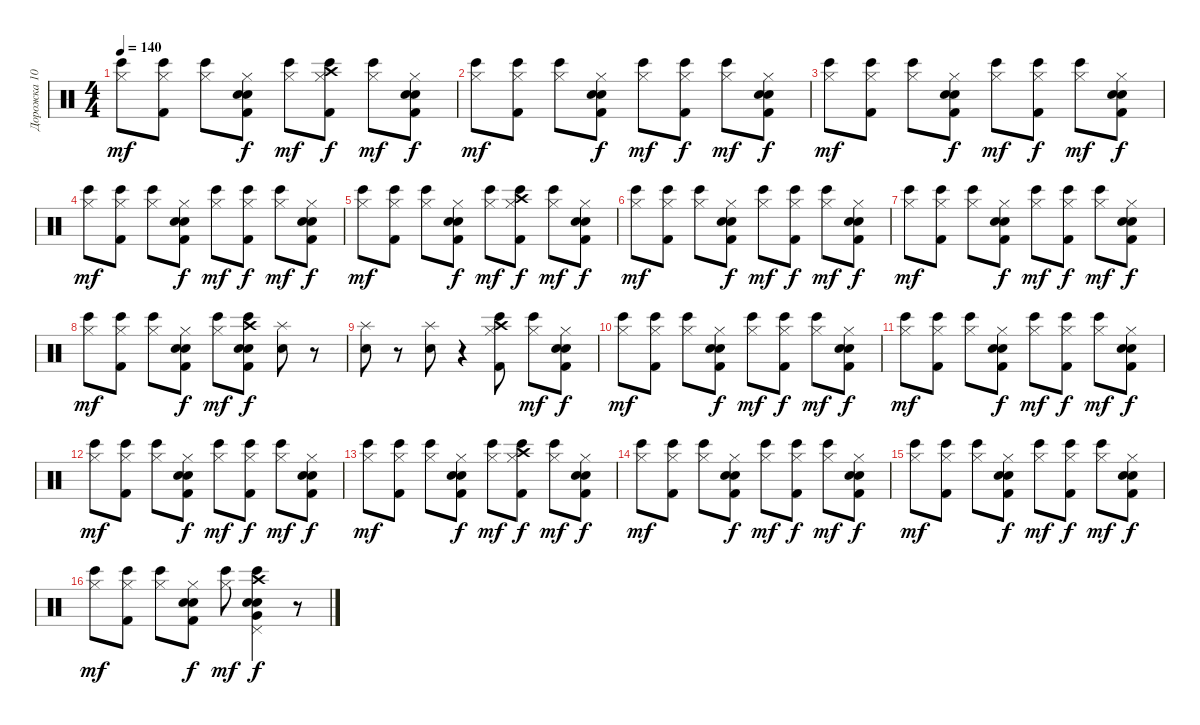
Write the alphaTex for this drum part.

\track ("Дорожка 10" "Дорожка 10") {instrument percussion}
\staff {score}
\articulation defaults
\ts (4 4)
\tempo 140
\clef neutral
\ks c
("Hi-Hat (closed)" "Bongo High (hit)").8{dy mf} ("Hi-Hat (closed)" "Kick (hit) 2" "Bongo High (hit)").8 ("Hi-Hat (closed)" "Bongo High (hit)").8 ("Hi-Hat (closed)" "Hand Clap (hit)" "Kick (hit) 2" "Snare (hit) 2").8{dy f} ("Hi-Hat (closed)" "Bongo High (hit)").8{dy mf} ("Bongo High (hit)" "Hi-Hat (closed)" "Crash high (hit)" "Kick (hit) 2").8{dy f} ("Bongo High (hit)" "Hi-Hat (closed)").8{dy mf} ("Hi-Hat (closed)" "Snare (hit) 2" "Hand Clap (hit)" "Kick (hit) 2").8{dy f} |
("Hi-Hat (closed)" "Bongo High (hit)").8{dy mf} ("Hi-Hat (closed)" "Kick (hit) 2" "Bongo High (hit)").8 ("Hi-Hat (closed)" "Bongo High (hit)").8 ("Hi-Hat (closed)" "Hand Clap (hit)" "Kick (hit) 2" "Snare (hit) 2").8{dy f} ("Bongo High (hit)" "Hi-Hat (closed)").8{dy mf} ("Kick (hit) 2" "Bongo High (hit)" "Hi-Hat (closed)").8{dy f} ("Bongo High (hit)" "Hi-Hat (closed)").8{dy mf} ("Snare (hit) 2" "Kick (hit) 2" "Hand Clap (hit)" "Hi-Hat (closed)").8{dy f} |
("Hi-Hat (closed)" "Bongo High (hit)").8{dy mf} ("Kick (hit) 2" "Hi-Hat (closed)" "Bongo High (hit)").8 ("Hi-Hat (closed)" "Bongo High (hit)").8 ("Kick (hit) 2" "Snare (hit) 2" "Hand Clap (hit)" "Hi-Hat (closed)").8{dy f} ("Bongo High (hit)" "Hi-Hat (closed)").8{dy mf} ("Hi-Hat (closed)" "Bongo High (hit)" "Kick (hit) 2").8{dy f} ("Bongo High (hit)" "Hi-Hat (closed)").8{dy mf} ("Hi-Hat (closed)" "Hand Clap (hit)" "Snare (hit) 2" "Kick (hit) 2").8{dy f} |
("Hi-Hat (closed)" "Bongo High (hit)").8{dy mf} ("Hi-Hat (closed)" "Kick (hit) 2" "Bongo High (hit)").8 ("Hi-Hat (closed)" "Bongo High (hit)").8 ("Hi-Hat (closed)" "Hand Clap (hit)" "Kick (hit) 2" "Snare (hit) 2").8{dy f} ("Hi-Hat (closed)" "Bongo High (hit)").8{dy mf} ("Hi-Hat (closed)" "Bongo High (hit)" "Kick (hit) 2").8{dy f} ("Bongo High (hit)" "Hi-Hat (closed)").8{dy mf} ("Hi-Hat (closed)" "Hand Clap (hit)" "Snare (hit) 2" "Kick (hit) 2").8{dy f} |
("Hi-Hat (closed)" "Bongo High (hit)").8{dy mf} ("Hi-Hat (closed)" "Kick (hit) 2" "Bongo High (hit)").8 ("Hi-Hat (closed)" "Bongo High (hit)").8 ("Hi-Hat (closed)" "Hand Clap (hit)" "Kick (hit) 2" "Snare (hit) 2").8{dy f} ("Hi-Hat (closed)" "Bongo High (hit)").8{dy mf} ("Bongo High (hit)" "Crash high (hit)" "Kick (hit) 2" "Hi-Hat (closed)").8{dy f} ("Bongo High (hit)" "Hi-Hat (closed)").8{dy mf} ("Hand Clap (hit)" "Snare (hit) 2" "Kick (hit) 2" "Hi-Hat (closed)").8{dy f} |
("Hi-Hat (closed)" "Bongo High (hit)").8{dy mf} ("Kick (hit) 2" "Hi-Hat (closed)" "Bongo High (hit)").8 ("Hi-Hat (closed)" "Bongo High (hit)").8 ("Hand Clap (hit)" "Kick (hit) 2" "Snare (hit) 2" "Hi-Hat (closed)").8{dy f} ("Bongo High (hit)" "Hi-Hat (closed)").8{dy mf} ("Bongo High (hit)" "Kick (hit) 2" "Hi-Hat (closed)").8{dy f} ("Bongo High (hit)" "Hi-Hat (closed)").8{dy mf} ("Hand Clap (hit)" "Snare (hit) 2" "Kick (hit) 2" "Hi-Hat (closed)").8{dy f} |
("Hi-Hat (closed)" "Bongo High (hit)").8{dy mf} ("Kick (hit) 2" "Hi-Hat (closed)" "Bongo High (hit)").8 ("Hi-Hat (closed)" "Bongo High (hit)").8 ("Hand Clap (hit)" "Kick (hit) 2" "Snare (hit) 2" "Hi-Hat (closed)").8{dy f} ("Bongo High (hit)" "Hi-Hat (closed)").8{dy mf} ("Kick (hit) 2" "Hi-Hat (closed)" "Bongo High (hit)").8{dy f} ("Bongo High (hit)" "Hi-Hat (closed)").8{dy mf} ("Snare (hit) 2" "Kick (hit) 2" "Hi-Hat (closed)" "Hand Clap (hit)").8{dy f} |
("Hi-Hat (closed)" "Bongo High (hit)").8{dy mf} ("Kick (hit) 2" "Hi-Hat (closed)" "Bongo High (hit)").8 ("Hi-Hat (closed)" "Bongo High (hit)").8 ("Kick (hit) 2" "Snare (hit) 2" "Hi-Hat (closed)" "Hand Clap (hit)").8{dy f} ("Hi-Hat (closed)" "Bongo High (hit)").8{dy mf} ("Electric Snare (hit)" "Snare (hit) 2" "Crash high (hit)" "Bongo High (hit)" "Kick (hit) 2").8{dy f} ("Splash (hit)" "Electric Snare (hit)").8 r.8 |
("Splash (hit)" "Electric Snare (hit)").8 r.8 ("Splash (hit)" "Electric Snare (hit)").8 r.4 ("Bongo High (hit)" "Hi-Hat (closed)" "Crash high (hit)" "Kick (hit) 2").8 ("Bongo High (hit)" "Hi-Hat (closed)").8{dy mf} ("Hi-Hat (closed)" "Snare (hit) 2" "Hand Clap (hit)" "Kick (hit) 2").8{dy f} |
("Hi-Hat (closed)" "Bongo High (hit)").8{dy mf} ("Hi-Hat (closed)" "Kick (hit) 2" "Bongo High (hit)").8 ("Hi-Hat (closed)" "Bongo High (hit)").8 ("Hi-Hat (closed)" "Hand Clap (hit)" "Kick (hit) 2" "Snare (hit) 2").8{dy f} ("Bongo High (hit)" "Hi-Hat (closed)").8{dy mf} ("Bongo High (hit)" "Hi-Hat (closed)" "Kick (hit) 2").8{dy f} ("Bongo High (hit)" "Hi-Hat (closed)").8{dy mf} ("Hand Clap (hit)" "Hi-Hat (closed)" "Snare (hit) 2" "Kick (hit) 2").8{dy f} |
("Hi-Hat (closed)" "Bongo High (hit)").8{dy mf} ("Hi-Hat (closed)" "Kick (hit) 2" "Bongo High (hit)").8 ("Hi-Hat (closed)" "Bongo High (hit)").8 ("Hand Clap (hit)" "Hi-Hat (closed)" "Kick (hit) 2" "Snare (hit) 2").8{dy f} ("Bongo High (hit)" "Hi-Hat (closed)").8{dy mf} ("Hi-Hat (closed)" "Kick (hit) 2" "Bongo High (hit)").8{dy f} ("Bongo High (hit)" "Hi-Hat (closed)").8{dy mf} ("Hi-Hat (closed)" "Snare (hit) 2" "Kick (hit) 2" "Hand Clap (hit)").8{dy f} |
("Hi-Hat (closed)" "Bongo High (hit)").8{dy mf} ("Hi-Hat (closed)" "Kick (hit) 2" "Bongo High (hit)").8 ("Hi-Hat (closed)" "Bongo High (hit)").8 ("Hi-Hat (closed)" "Kick (hit) 2" "Snare (hit) 2" "Hand Clap (hit)").8{dy f} ("Hi-Hat (closed)" "Bongo High (hit)").8{dy mf} ("Kick (hit) 2" "Bongo High (hit)" "Hi-Hat (closed)").8{dy f} ("Bongo High (hit)" "Hi-Hat (closed)").8{dy mf} ("Snare (hit) 2" "Kick (hit) 2" "Hand Clap (hit)" "Hi-Hat (closed)").8{dy f} |
("Hi-Hat (closed)" "Bongo High (hit)").8{dy mf} ("Kick (hit) 2" "Hi-Hat (closed)" "Bongo High (hit)").8 ("Hi-Hat (closed)" "Bongo High (hit)").8 ("Kick (hit) 2" "Snare (hit) 2" "Hand Clap (hit)" "Hi-Hat (closed)").8{dy f} ("Bongo High (hit)" "Hi-Hat (closed)").8{dy mf} ("Crash high (hit)" "Kick (hit) 2" "Bongo High (hit)" "Hi-Hat (closed)").8{dy f} ("Bongo High (hit)" "Hi-Hat (closed)").8{dy mf} ("Snare (hit) 2" "Kick (hit) 2" "Hand Clap (hit)" "Hi-Hat (closed)").8{dy f} |
("Hi-Hat (closed)" "Bongo High (hit)").8{dy mf} ("Kick (hit) 2" "Hi-Hat (closed)" "Bongo High (hit)").8 ("Hi-Hat (closed)" "Bongo High (hit)").8 ("Kick (hit) 2" "Snare (hit) 2" "Hand Clap (hit)" "Hi-Hat (closed)").8{dy f} ("Bongo High (hit)" "Hi-Hat (closed)").8{dy mf} ("Bongo High (hit)" "Kick (hit) 2" "Hi-Hat (closed)").8{dy f} ("Bongo High (hit)" "Hi-Hat (closed)").8{dy mf} ("Hand Clap (hit)" "Snare (hit) 2" "Kick (hit) 2" "Hi-Hat (closed)").8{dy f} |
("Hi-Hat (closed)" "Bongo High (hit)").8{dy mf} ("Kick (hit) 2" "Hi-Hat (closed)" "Bongo High (hit)").8 ("Hi-Hat (closed)" "Bongo High (hit)").8 ("Hand Clap (hit)" "Kick (hit) 2" "Snare (hit) 2" "Hi-Hat (closed)").8{dy f} ("Bongo High (hit)" "Hi-Hat (closed)").8{dy mf} ("Kick (hit) 2" "Hi-Hat (closed)" "Bongo High (hit)").8{dy f} ("Bongo High (hit)" "Hi-Hat (closed)").8{dy mf} ("Snare (hit) 2" "Kick (hit) 2" "Hi-Hat (closed)" "Hand Clap (hit)").8{dy f} |
("Hi-Hat (closed)" "Bongo High (hit)").8{dy mf} ("Kick (hit) 2" "Hi-Hat (closed)" "Bongo High (hit)").8 ("Hi-Hat (closed)" "Bongo High (hit)").8 ("Kick (hit) 2" "Snare (hit) 2" "Hi-Hat (closed)" "Hand Clap (hit)").8{dy f} ("Hi-Hat (closed)" "Bongo High (hit)").8{dy mf} ("Pedal Hi-Hat (hit)" "Very Low Tom (hit)" "Bongo High (hit)" "Crash high (hit)" "Electric Snare (hit)" "Snare (hit) 2").4{dy f} r.8
